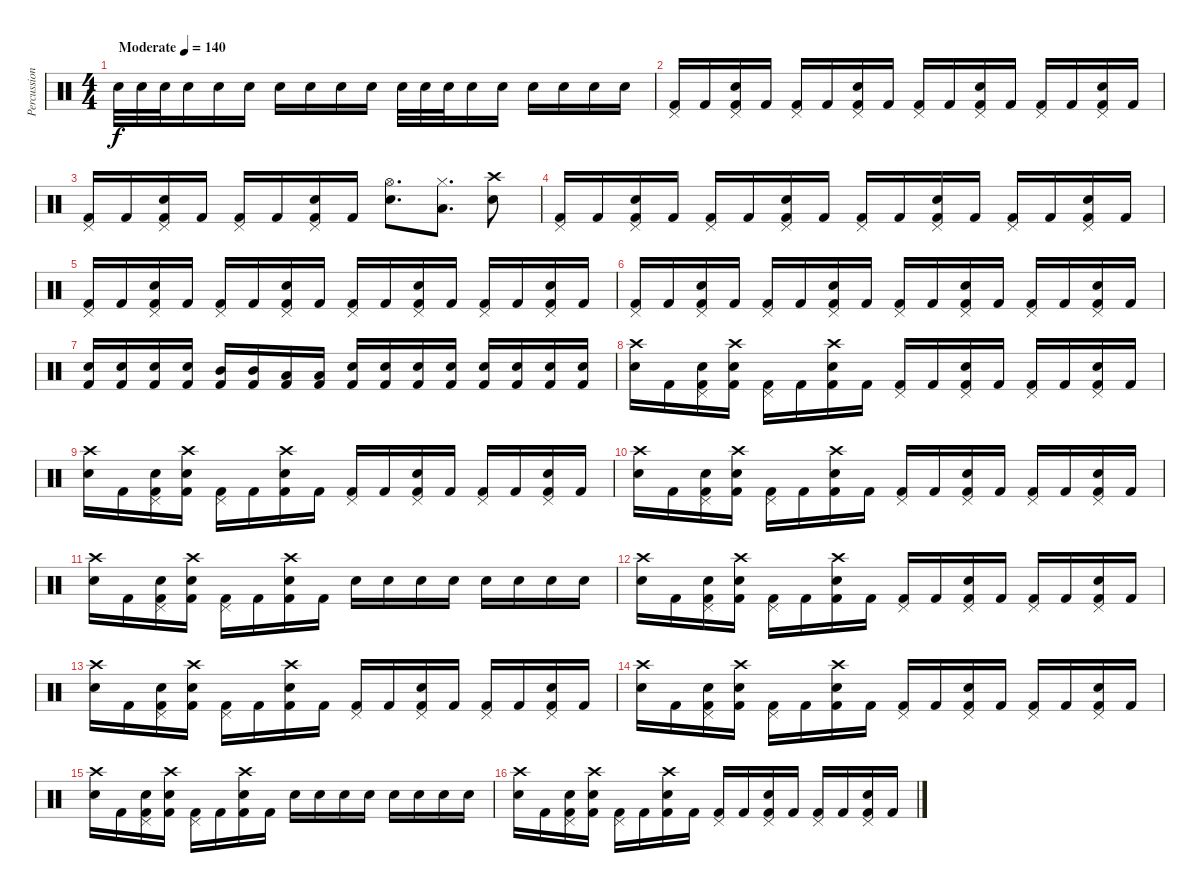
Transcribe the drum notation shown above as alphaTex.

\track ("Percussions" "Percussion") {instrument percussion}
\staff {score}
\articulation defaults
\ts (4 4)
\tempo (140 "Moderate")
\clef neutral
\ks c "Electric Snare (hit)".32{dy f} "Electric Snare (hit)".32 "Electric Snare (hit)".32 "Electric Snare (hit)".16 "Electric Snare (hit)".16 "Electric Snare (hit)".16 "Electric Snare (hit)".16 "Electric Snare (hit)".16 "Electric Snare (hit)".16 "Electric Snare (hit)".16 "Electric Snare (hit)".32 "Electric Snare (hit)".32 "Electric Snare (hit)".32 "Electric Snare (hit)".16 "Electric Snare (hit)".16 "Electric Snare (hit)".16 "Electric Snare (hit)".16 "Electric Snare (hit)".16 "Electric Snare (hit)".16
|
("Pedal Hi-Hat (hit)" "Kick (hit) 2").16 "Kick (hit) 2".16 ("Pedal Hi-Hat (hit)" "Electric Snare (hit)" "Kick (hit) 2").16 "Kick (hit) 2".16 ("Pedal Hi-Hat (hit)" "Kick (hit) 2").16 "Kick (hit) 2".16 ("Pedal Hi-Hat (hit)" "Electric Snare (hit)" "Kick (hit) 2").16 "Kick (hit) 2".16 ("Pedal Hi-Hat (hit)" "Kick (hit) 2").16 "Kick (hit) 2".16 ("Pedal Hi-Hat (hit)" "Electric Snare (hit)" "Kick (hit) 2").16 "Kick (hit) 2".16 ("Pedal Hi-Hat (hit)" "Kick (hit) 2").16 "Kick (hit) 2".16 ("Pedal Hi-Hat (hit)" "Electric Snare (hit)" "Kick (hit) 2").16 "Kick (hit) 2".16 |
("Pedal Hi-Hat (hit)" "Kick (hit) 2").16 "Kick (hit) 2".16 ("Pedal Hi-Hat (hit)" "Electric Snare (hit)" "Kick (hit) 2").16 "Kick (hit) 2".16 ("Pedal Hi-Hat (hit)" "Kick (hit) 2").16 "Kick (hit) 2".16 ("Pedal Hi-Hat (hit)" "Electric Snare (hit)" "Kick (hit) 2").16 "Kick (hit) 2".16 ("Hi-Hat (open)" "Electric Snare (hit)").8{d} ("Hi-Hat (closed)" "Low Floor Tom (hit)").8{d} ("Crash high (hit)" "Electric Snare (hit)").8 |
("Pedal Hi-Hat (hit)" "Kick (hit) 2").16 "Kick (hit) 2".16 ("Pedal Hi-Hat (hit)" "Electric Snare (hit)" "Kick (hit) 2").16 "Kick (hit) 2".16 ("Pedal Hi-Hat (hit)" "Kick (hit) 2").16 "Kick (hit) 2".16 ("Pedal Hi-Hat (hit)" "Electric Snare (hit)" "Kick (hit) 2").16 "Kick (hit) 2".16 ("Pedal Hi-Hat (hit)" "Kick (hit) 2").16 "Kick (hit) 2".16 ("Pedal Hi-Hat (hit)" "Electric Snare (hit)" "Kick (hit) 2").16 "Kick (hit) 2".16 ("Pedal Hi-Hat (hit)" "Kick (hit) 2").16 "Kick (hit) 2".16 ("Pedal Hi-Hat (hit)" "Electric Snare (hit)" "Kick (hit) 2").16 "Kick (hit) 2".16 |
("Pedal Hi-Hat (hit)" "Kick (hit) 2").16 "Kick (hit) 2".16 ("Pedal Hi-Hat (hit)" "Electric Snare (hit)" "Kick (hit) 2").16 "Kick (hit) 2".16 ("Pedal Hi-Hat (hit)" "Kick (hit) 2").16 "Kick (hit) 2".16 ("Pedal Hi-Hat (hit)" "Electric Snare (hit)" "Kick (hit) 2").16 "Kick (hit) 2".16 ("Pedal Hi-Hat (hit)" "Kick (hit) 2").16 "Kick (hit) 2".16 ("Pedal Hi-Hat (hit)" "Electric Snare (hit)" "Kick (hit) 2").16 "Kick (hit) 2".16 ("Pedal Hi-Hat (hit)" "Kick (hit) 2").16 "Kick (hit) 2".16 ("Pedal Hi-Hat (hit)" "Electric Snare (hit)" "Kick (hit) 2").16 "Kick (hit) 2".16 |
("Pedal Hi-Hat (hit)" "Kick (hit) 2").16 "Kick (hit) 2".16 ("Pedal Hi-Hat (hit)" "Electric Snare (hit)" "Kick (hit) 2").16 "Kick (hit) 2".16 ("Pedal Hi-Hat (hit)" "Kick (hit) 2").16 "Kick (hit) 2".16 ("Pedal Hi-Hat (hit)" "Electric Snare (hit)" "Kick (hit) 2").16 "Kick (hit) 2".16 ("Pedal Hi-Hat (hit)" "Kick (hit) 2").16 "Kick (hit) 2".16 ("Pedal Hi-Hat (hit)" "Electric Snare (hit)" "Kick (hit) 2").16 "Kick (hit) 2".16 ("Pedal Hi-Hat (hit)" "Kick (hit) 2").16 "Kick (hit) 2".16 ("Pedal Hi-Hat (hit)" "Electric Snare (hit)" "Kick (hit) 2").16 "Kick (hit) 2".16 |
("Electric Snare (hit)" "Kick (hit) 2").16 ("Electric Snare (hit)" "Kick (hit) 2").16 ("Electric Snare (hit)" "Kick (hit) 2").16 ("Electric Snare (hit)" "Kick (hit) 2").16 ("Mid Tom (hit)" "Kick (hit) 2").16 ("Mid Tom (hit)" "Kick (hit) 2").16 ("Low Tom (hit)" "Kick (hit) 2").16 ("Low Tom (hit)" "Kick (hit) 2").16 ("Electric Snare (hit)" "Kick (hit) 2").16 ("Electric Snare (hit)" "Kick (hit) 2").16 ("Electric Snare (hit)" "Kick (hit) 2").16 ("Electric Snare (hit)" "Kick (hit) 2").16 ("Electric Snare (hit)" "Kick (hit) 2").16 ("Electric Snare (hit)" "Kick (hit) 2").16 ("Electric Snare (hit)" "Kick (hit) 2").16 ("Electric Snare (hit)" "Kick (hit) 2").16 |
("Crash high (hit)" "Electric Snare (hit)").16 "Kick (hit) 2".16 ("Pedal Hi-Hat (hit)" "Electric Snare (hit)" "Kick (hit) 2").16 ("Crash high (hit)" "Electric Snare (hit)" "Kick (hit) 2").16 ("Pedal Hi-Hat (hit)" "Kick (hit) 2").16 "Kick (hit) 2".16 ("Crash high (hit)" "Electric Snare (hit)" "Kick (hit) 2").16 "Kick (hit) 2".16 ("Pedal Hi-Hat (hit)" "Kick (hit) 2").16 "Kick (hit) 2".16 ("Pedal Hi-Hat (hit)" "Electric Snare (hit)" "Kick (hit) 2").16 "Kick (hit) 2".16 ("Pedal Hi-Hat (hit)" "Kick (hit) 2").16 "Kick (hit) 2".16 ("Pedal Hi-Hat (hit)" "Electric Snare (hit)" "Kick (hit) 2").16 "Kick (hit) 2".16 |
("Crash high (hit)" "Electric Snare (hit)").16 "Kick (hit) 2".16 ("Pedal Hi-Hat (hit)" "Electric Snare (hit)" "Kick (hit) 2").16 ("Crash high (hit)" "Electric Snare (hit)" "Kick (hit) 2").16 ("Pedal Hi-Hat (hit)" "Kick (hit) 2").16 "Kick (hit) 2".16 ("Crash high (hit)" "Electric Snare (hit)" "Kick (hit) 2").16 "Kick (hit) 2".16 ("Pedal Hi-Hat (hit)" "Kick (hit) 2").16 "Kick (hit) 2".16 ("Pedal Hi-Hat (hit)" "Electric Snare (hit)" "Kick (hit) 2").16 "Kick (hit) 2".16 ("Pedal Hi-Hat (hit)" "Kick (hit) 2").16 "Kick (hit) 2".16 ("Pedal Hi-Hat (hit)" "Electric Snare (hit)" "Kick (hit) 2").16 "Kick (hit) 2".16 |
("Crash high (hit)" "Electric Snare (hit)").16 "Kick (hit) 2".16 ("Pedal Hi-Hat (hit)" "Electric Snare (hit)" "Kick (hit) 2").16 ("Crash high (hit)" "Electric Snare (hit)" "Kick (hit) 2").16 ("Pedal Hi-Hat (hit)" "Kick (hit) 2").16 "Kick (hit) 2".16 ("Crash high (hit)" "Electric Snare (hit)" "Kick (hit) 2").16 "Kick (hit) 2".16 ("Pedal Hi-Hat (hit)" "Kick (hit) 2").16 "Kick (hit) 2".16 ("Pedal Hi-Hat (hit)" "Electric Snare (hit)" "Kick (hit) 2").16 "Kick (hit) 2".16 ("Pedal Hi-Hat (hit)" "Kick (hit) 2").16 "Kick (hit) 2".16 ("Pedal Hi-Hat (hit)" "Electric Snare (hit)" "Kick (hit) 2").16 "Kick (hit) 2".16 |
("Crash high (hit)" "Electric Snare (hit)").16 "Kick (hit) 2".16 ("Pedal Hi-Hat (hit)" "Electric Snare (hit)" "Kick (hit) 2").16 ("Crash high (hit)" "Electric Snare (hit)" "Kick (hit) 2").16 ("Pedal Hi-Hat (hit)" "Kick (hit) 2").16 "Kick (hit) 2".16 ("Crash high (hit)" "Electric Snare (hit)" "Kick (hit) 2").16 "Kick (hit) 2".16 "Electric Snare (hit)".16 "Electric Snare (hit)".16 "Electric Snare (hit)".16 "Electric Snare (hit)".16 "Electric Snare (hit)".16 "Electric Snare (hit)".16 "Electric Snare (hit)".16 "Electric Snare (hit)".16 |
("Crash high (hit)" "Electric Snare (hit)").16 "Kick (hit) 2".16 ("Pedal Hi-Hat (hit)" "Electric Snare (hit)" "Kick (hit) 2").16 ("Crash high (hit)" "Electric Snare (hit)" "Kick (hit) 2").16 ("Pedal Hi-Hat (hit)" "Kick (hit) 2").16 "Kick (hit) 2".16 ("Crash high (hit)" "Electric Snare (hit)" "Kick (hit) 2").16 "Kick (hit) 2".16 ("Pedal Hi-Hat (hit)" "Kick (hit) 2").16 "Kick (hit) 2".16 ("Pedal Hi-Hat (hit)" "Electric Snare (hit)" "Kick (hit) 2").16 "Kick (hit) 2".16 ("Pedal Hi-Hat (hit)" "Kick (hit) 2").16 "Kick (hit) 2".16 ("Pedal Hi-Hat (hit)" "Electric Snare (hit)" "Kick (hit) 2").16 "Kick (hit) 2".16 |
("Crash high (hit)" "Electric Snare (hit)").16 "Kick (hit) 2".16 ("Pedal Hi-Hat (hit)" "Electric Snare (hit)" "Kick (hit) 2").16 ("Crash high (hit)" "Electric Snare (hit)" "Kick (hit) 2").16 ("Pedal Hi-Hat (hit)" "Kick (hit) 2").16 "Kick (hit) 2".16 ("Crash high (hit)" "Electric Snare (hit)" "Kick (hit) 2").16 "Kick (hit) 2".16 ("Pedal Hi-Hat (hit)" "Kick (hit) 2").16 "Kick (hit) 2".16 ("Pedal Hi-Hat (hit)" "Electric Snare (hit)" "Kick (hit) 2").16 "Kick (hit) 2".16 ("Pedal Hi-Hat (hit)" "Kick (hit) 2").16 "Kick (hit) 2".16 ("Pedal Hi-Hat (hit)" "Electric Snare (hit)" "Kick (hit) 2").16 "Kick (hit) 2".16 |
("Crash high (hit)" "Electric Snare (hit)").16 "Kick (hit) 2".16 ("Pedal Hi-Hat (hit)" "Electric Snare (hit)" "Kick (hit) 2").16 ("Crash high (hit)" "Electric Snare (hit)" "Kick (hit) 2").16 ("Pedal Hi-Hat (hit)" "Kick (hit) 2").16 "Kick (hit) 2".16 ("Crash high (hit)" "Electric Snare (hit)" "Kick (hit) 2").16 "Kick (hit) 2".16 ("Pedal Hi-Hat (hit)" "Kick (hit) 2").16 "Kick (hit) 2".16 ("Pedal Hi-Hat (hit)" "Electric Snare (hit)" "Kick (hit) 2").16 "Kick (hit) 2".16 ("Pedal Hi-Hat (hit)" "Kick (hit) 2").16 "Kick (hit) 2".16 ("Pedal Hi-Hat (hit)" "Electric Snare (hit)" "Kick (hit) 2").16 "Kick (hit) 2".16 |
("Crash high (hit)" "Electric Snare (hit)").16 "Kick (hit) 2".16 ("Pedal Hi-Hat (hit)" "Electric Snare (hit)" "Kick (hit) 2").16 ("Crash high (hit)" "Electric Snare (hit)" "Kick (hit) 2").16 ("Pedal Hi-Hat (hit)" "Kick (hit) 2").16 "Kick (hit) 2".16 ("Crash high (hit)" "Electric Snare (hit)" "Kick (hit) 2").16 "Kick (hit) 2".16 "Electric Snare (hit)".16 "Electric Snare (hit)".16 "Electric Snare (hit)".16 "Electric Snare (hit)".16 "Electric Snare (hit)".16 "Electric Snare (hit)".16 "Electric Snare (hit)".16 "Electric Snare (hit)".16 |
("Crash high (hit)" "Electric Snare (hit)").16 "Kick (hit) 2".16 ("Pedal Hi-Hat (hit)" "Electric Snare (hit)" "Kick (hit) 2").16 ("Crash high (hit)" "Electric Snare (hit)" "Kick (hit) 2").16 ("Pedal Hi-Hat (hit)" "Kick (hit) 2").16 "Kick (hit) 2".16 ("Crash high (hit)" "Electric Snare (hit)" "Kick (hit) 2").16 "Kick (hit) 2".16 ("Pedal Hi-Hat (hit)" "Kick (hit) 2").16 "Kick (hit) 2".16 ("Pedal Hi-Hat (hit)" "Electric Snare (hit)" "Kick (hit) 2").16 "Kick (hit) 2".16 ("Pedal Hi-Hat (hit)" "Kick (hit) 2").16 "Kick (hit) 2".16 ("Pedal Hi-Hat (hit)" "Electric Snare (hit)" "Kick (hit) 2").16 "Kick (hit) 2".16
